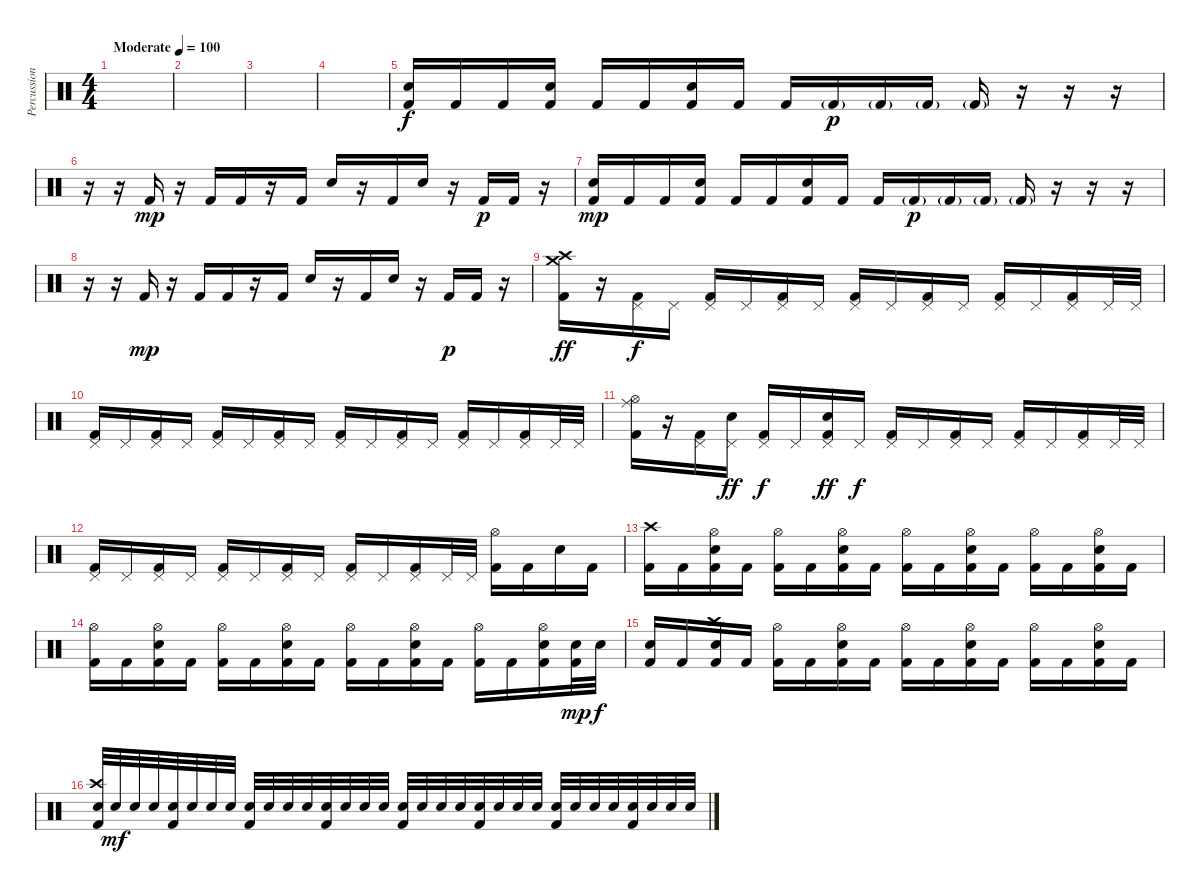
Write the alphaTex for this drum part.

\track ("Percussion" "Percussion") {instrument percussion}
\staff {score}
\articulation defaults
\ts (4 4)
\tempo (100 "Moderate")
\clef neutral
\ks c
|
|
|
|
("Snare (hit) 2" "Kick (hit) 2").16 "Kick (hit) 2".16 "Kick (hit) 2".16 ("Snare (hit) 2" "Kick (hit) 2").16 "Kick (hit) 2".16 "Kick (hit) 2".16 ("Snare (hit) 2" "Kick (hit) 2").16 "Kick (hit) 2".16 "Kick (hit) 2".16 "Kick (hit) 2"{g}.16{dy p} "Kick (hit) 2"{g}.16 "Kick (hit) 2"{g}.16 "Kick (hit) 2"{g}.16 r.16 r.16 r.16 |
r.16 r.16 "Kick (hit) 2".16{dy mp} r.16 "Kick (hit) 2".16 "Kick (hit) 2".16 r.16 "Kick (hit) 2".16 "Snare (hit) 2".16 r.16 "Kick (hit) 2".16 "Snare (hit) 2".16 r.16 "Kick (hit) 2".16{dy p} "Kick (hit) 2".16 r.16 |
("Snare (hit) 2" "Kick (hit) 2").16{dy mp} "Kick (hit) 2".16 "Kick (hit) 2".16 ("Snare (hit) 2" "Kick (hit) 2").16 "Kick (hit) 2".16 "Kick (hit) 2".16 ("Snare (hit) 2" "Kick (hit) 2").16 "Kick (hit) 2".16 "Kick (hit) 2".16 "Kick (hit) 2"{g}.16{dy p} "Kick (hit) 2"{g}.16 "Kick (hit) 2"{g}.16 "Kick (hit) 2"{g}.16 r.16 r.16 r.16 |
r.16 r.16 "Kick (hit) 2".16{dy mp} r.16 "Kick (hit) 2".16 "Kick (hit) 2".16 r.16 "Kick (hit) 2".16 "Snare (hit) 2".16 r.16 "Kick (hit) 2".16 "Snare (hit) 2".16 r.16 "Kick (hit) 2".16{dy p} "Kick (hit) 2".16 r.16 |
("Crash medium (hit)" "Crash high (hit)" "Kick (hit) 2").16{dy ff} r.16 ("Pedal Hi-Hat (hit)" "Kick (hit) 2").16{dy f} "Pedal Hi-Hat (hit)".16 ("Pedal Hi-Hat (hit)" "Kick (hit) 2").16 "Pedal Hi-Hat (hit)".16 ("Pedal Hi-Hat (hit)" "Kick (hit) 2").16 "Pedal Hi-Hat (hit)".16 ("Pedal Hi-Hat (hit)" "Kick (hit) 2").16 "Pedal Hi-Hat (hit)".16 ("Pedal Hi-Hat (hit)" "Kick (hit) 2").16 "Pedal Hi-Hat (hit)".16 ("Pedal Hi-Hat (hit)" "Kick (hit) 2").16 "Pedal Hi-Hat (hit)".16 ("Pedal Hi-Hat (hit)" "Kick (hit) 2").16 "Pedal Hi-Hat (hit)".32 "Pedal Hi-Hat (hit)".32 |
("Pedal Hi-Hat (hit)" "Kick (hit) 2").16 "Pedal Hi-Hat (hit)".16 ("Pedal Hi-Hat (hit)" "Kick (hit) 2").16 "Pedal Hi-Hat (hit)".16 ("Pedal Hi-Hat (hit)" "Kick (hit) 2").16 "Pedal Hi-Hat (hit)".16 ("Pedal Hi-Hat (hit)" "Kick (hit) 2").16 "Pedal Hi-Hat (hit)".16 ("Pedal Hi-Hat (hit)" "Kick (hit) 2").16 "Pedal Hi-Hat (hit)".16 ("Pedal Hi-Hat (hit)" "Kick (hit) 2").16 "Pedal Hi-Hat (hit)".16 ("Pedal Hi-Hat (hit)" "Kick (hit) 2").16 "Pedal Hi-Hat (hit)".16 ("Pedal Hi-Hat (hit)" "Kick (hit) 2").16 "Pedal Hi-Hat (hit)".32 "Pedal Hi-Hat (hit)".32 |
("Ride (middle)" "Hi-Hat (open)" "Kick (hit) 2").16 r.16 ("Pedal Hi-Hat (hit)" "Kick (hit) 2").16 ("Pedal Hi-Hat (hit)" "Snare (hit) 2").16{dy ff} ("Pedal Hi-Hat (hit)" "Kick (hit) 2").16{dy f} "Pedal Hi-Hat (hit)".16 ("Pedal Hi-Hat (hit)" "Snare (hit) 2" "Kick (hit) 2").16{dy ff} "Pedal Hi-Hat (hit)".16{dy f} ("Pedal Hi-Hat (hit)" "Kick (hit) 2").16 "Pedal Hi-Hat (hit)".16 ("Pedal Hi-Hat (hit)" "Kick (hit) 2").16 "Pedal Hi-Hat (hit)".16 ("Pedal Hi-Hat (hit)" "Kick (hit) 2").16 "Pedal Hi-Hat (hit)".16 ("Pedal Hi-Hat (hit)" "Kick (hit) 2").16 "Pedal Hi-Hat (hit)".32 "Pedal Hi-Hat (hit)".32 |
("Pedal Hi-Hat (hit)" "Kick (hit) 2").16 "Pedal Hi-Hat (hit)".16 ("Pedal Hi-Hat (hit)" "Kick (hit) 2").16 "Pedal Hi-Hat (hit)".16 ("Pedal Hi-Hat (hit)" "Kick (hit) 2").16 "Pedal Hi-Hat (hit)".16 ("Pedal Hi-Hat (hit)" "Kick (hit) 2").16 "Pedal Hi-Hat (hit)".16 ("Pedal Hi-Hat (hit)" "Kick (hit) 2").16 "Pedal Hi-Hat (hit)".16 ("Pedal Hi-Hat (hit)" "Kick (hit) 2").16 "Pedal Hi-Hat (hit)".32 "Pedal Hi-Hat (hit)".32 ("Hi-Hat (open)" "Kick (hit) 2").16 "Kick (hit) 2".16 "Electric Snare (hit)".16 "Kick (hit) 2".16 |
("Crash high (hit)" "Kick (hit) 2").16 "Kick (hit) 2".16 ("Hi-Hat (open)" "Electric Snare (hit)" "Kick (hit) 2").16 "Kick (hit) 2".16 ("Hi-Hat (open)" "Kick (hit) 2").16 "Kick (hit) 2".16 ("Hi-Hat (open)" "Electric Snare (hit)" "Kick (hit) 2").16 "Kick (hit) 2".16 ("Hi-Hat (open)" "Kick (hit) 2").16 "Kick (hit) 2".16 ("Hi-Hat (open)" "Electric Snare (hit)" "Kick (hit) 2").16 "Kick (hit) 2".16 ("Hi-Hat (open)" "Kick (hit) 2").16 "Kick (hit) 2".16 ("Hi-Hat (open)" "Electric Snare (hit)" "Kick (hit) 2").16 "Kick (hit) 2".16 |
("Hi-Hat (open)" "Kick (hit) 2").16 "Kick (hit) 2".16 ("Hi-Hat (open)" "Electric Snare (hit)" "Kick (hit) 2").16 "Kick (hit) 2".16 ("Hi-Hat (open)" "Kick (hit) 2").16 "Kick (hit) 2".16 ("Hi-Hat (open)" "Electric Snare (hit)" "Kick (hit) 2").16 "Kick (hit) 2".16 ("Hi-Hat (open)" "Kick (hit) 2").16 "Kick (hit) 2".16 ("Hi-Hat (open)" "Electric Snare (hit)" "Kick (hit) 2").16 "Kick (hit) 2".16 ("Hi-Hat (open)" "Kick (hit) 2").16 "Kick (hit) 2".16 ("Hi-Hat (open)" "Electric Snare (hit)" "Kick (hit) 2").16 ("Electric Snare (hit)" "Kick (hit) 2").32{dy mp} "Electric Snare (hit)".32{dy f} |
("Electric Snare (hit)" "Kick (hit) 2").16 "Kick (hit) 2".16 ("Crash high (hit)" "Electric Snare (hit)" "Kick (hit) 2").16 "Kick (hit) 2".16 ("Hi-Hat (open)" "Kick (hit) 2").16 "Kick (hit) 2".16 ("Hi-Hat (open)" "Electric Snare (hit)" "Kick (hit) 2").16 "Kick (hit) 2".16 ("Hi-Hat (open)" "Kick (hit) 2").16 "Kick (hit) 2".16 ("Hi-Hat (open)" "Electric Snare (hit)" "Kick (hit) 2").16 "Kick (hit) 2".16 ("Hi-Hat (open)" "Kick (hit) 2").16 "Kick (hit) 2".16 ("Hi-Hat (open)" "Electric Snare (hit)" "Kick (hit) 2").16 "Kick (hit) 2".16 |
("Crash high (hit)" "Electric Snare (hit)" "Kick (hit) 2").32 "Electric Snare (hit)".32{dy mf} "Electric Snare (hit)".32 "Electric Snare (hit)".32 ("Electric Snare (hit)" "Kick (hit) 2").32 "Electric Snare (hit)".32 "Electric Snare (hit)".32 "Electric Snare (hit)".32 ("Electric Snare (hit)" "Kick (hit) 2").32 "Electric Snare (hit)".32 "Electric Snare (hit)".32 "Electric Snare (hit)".32 ("Electric Snare (hit)" "Kick (hit) 2").32 "Electric Snare (hit)".32 "Electric Snare (hit)".32 "Electric Snare (hit)".32 ("Electric Snare (hit)" "Kick (hit) 2").32 "Electric Snare (hit)".32 "Electric Snare (hit)".32 "Electric Snare (hit)".32 ("Electric Snare (hit)" "Kick (hit) 2").32 "Electric Snare (hit)".32 "Electric Snare (hit)".32 "Electric Snare (hit)".32 ("Electric Snare (hit)" "Kick (hit) 2").32 "Electric Snare (hit)".32 "Electric Snare (hit)".32 "Electric Snare (hit)".32 ("Electric Snare (hit)" "Kick (hit) 2").32 "Electric Snare (hit)".32 "Electric Snare (hit)".32 "Electric Snare (hit)".32
